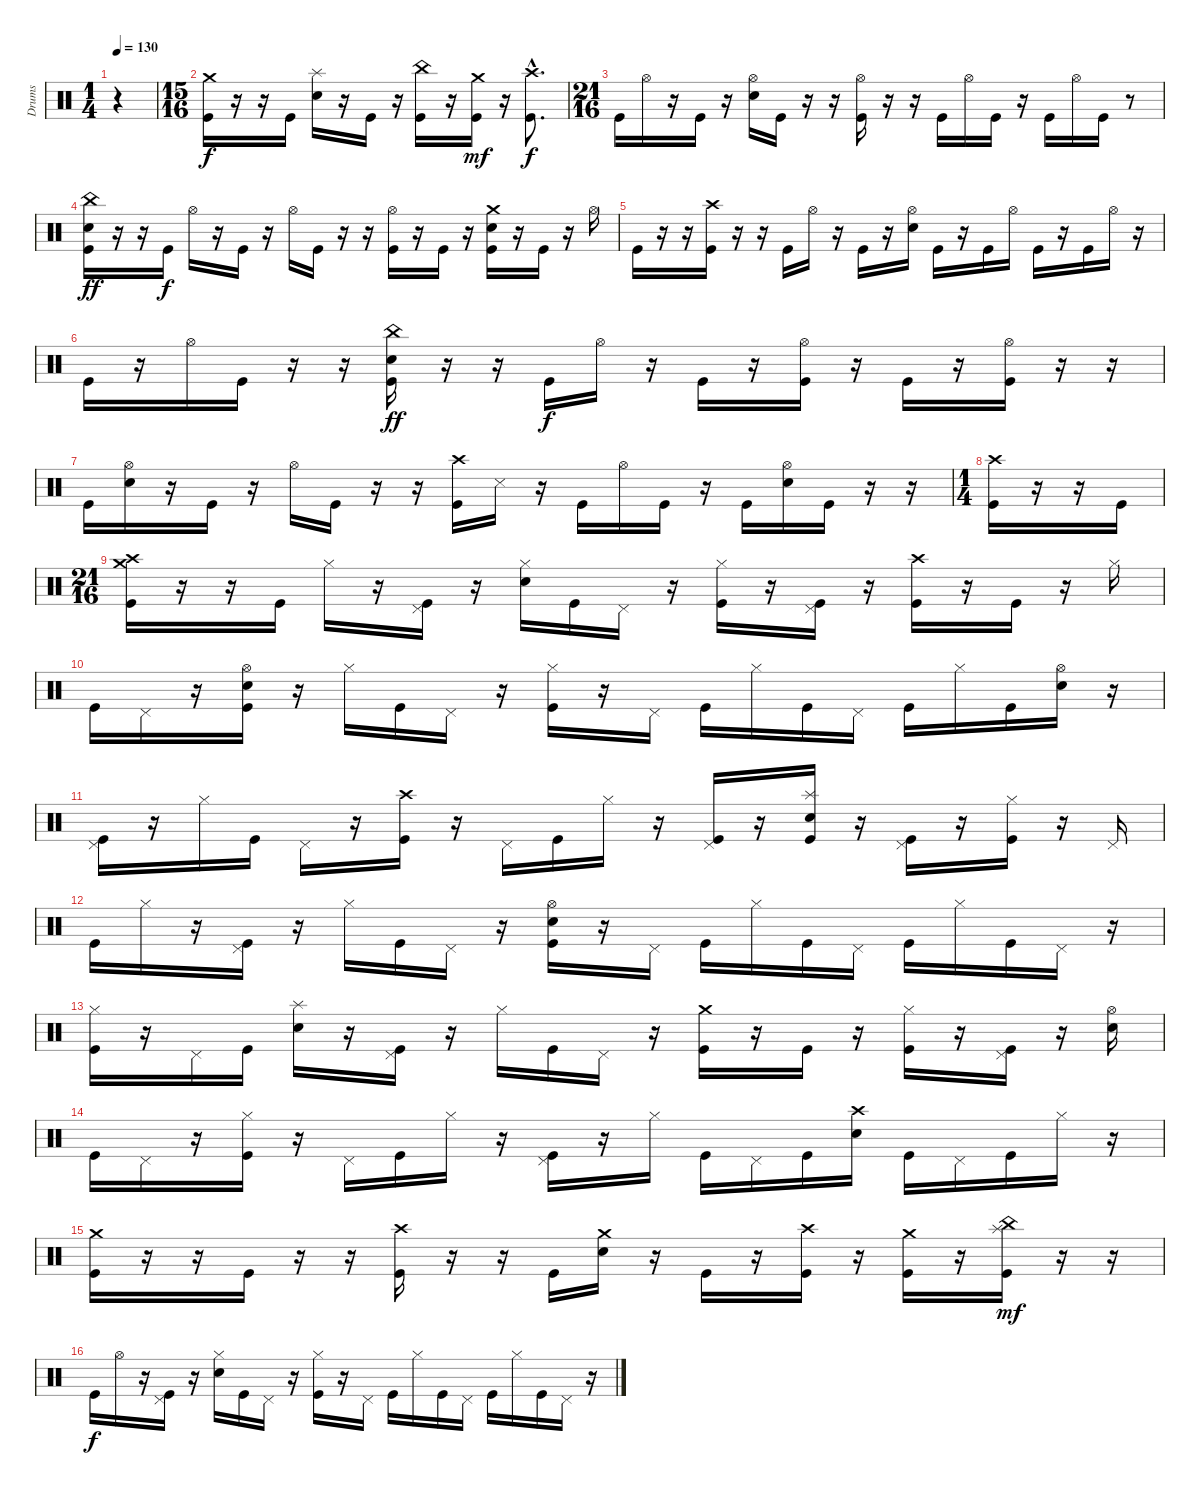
\track ("Drums" "Drums") {instrument percussion}
\staff {score}
\articulation defaults
\ts (1 4)
\tempo 130
\clef neutral
\ks c
r.4{dy mf} |
\ts (15 16)
("Crash medium (hit)" "Kick (hit)").16{dy f} r.16 r.16 "Kick (hit)".16 ("Splash (hit)" "Electric Snare (hit)").16 r.16 "Kick (hit)".16 r.16 ("China (hit)" "Kick (hit)").16 r.16 ("Crash medium (hit)" "Kick (hit)").16{dy mf} r.16 ("Crash high (hit)"{hac} "Kick (hit)"{hac}).8{d dy f} |
\ts (21 16)
"Kick (hit)".16 "Hi-Hat (open)".16 r.16 "Kick (hit)".16 r.16 ("Hi-Hat (open)" "Electric Snare (hit)").16 "Kick (hit)".16 r.16 r.16 ("Hi-Hat (open)" "Kick (hit)").16 r.16 r.16 "Kick (hit)".16 "Hi-Hat (open)".16 "Kick (hit)".16 r.16 "Kick (hit)".16 "Hi-Hat (open)".16 "Kick (hit)".16 r.8 |
("China (hit)" "Electric Snare (hit)" "Kick (hit)").16{dy ff} r.16 r.16 "Kick (hit)".16{dy f} "Hi-Hat (open)".16 r.16 "Kick (hit)".16 r.16 "Hi-Hat (open)".16 "Kick (hit)".16 r.16 r.16 ("Hi-Hat (open)" "Kick (hit)").16 r.16 "Kick (hit)".16 r.16 ("Crash medium (hit)" "Electric Snare (hit)" "Kick (hit)").16 r.16 "Kick (hit)".16 r.16 "Hi-Hat (open)".16 |
"Kick (hit)".16 r.16 r.16 ("Crash high (hit)" "Kick (hit)").16 r.16 r.16 "Kick (hit)".16 "Hi-Hat (open)".16 r.16 "Kick (hit)".16 r.16 ("Hi-Hat (open)" "Electric Snare (hit)").16 "Kick (hit)".16 r.16 "Kick (hit)".16 "Hi-Hat (open)".16 "Kick (hit)".16 r.16 "Kick (hit)".16 "Hi-Hat (open)".16 r.16 |
"Kick (hit)".16 r.16 "Hi-Hat (open)".16 "Kick (hit)".16 r.16 r.16 ("China (hit)" "Electric Snare (hit)" "Kick (hit)").16{dy ff} r.16 r.16 "Kick (hit)".16{dy f} "Hi-Hat (open)".16 r.16 "Kick (hit)".16 r.16 ("Hi-Hat (open)" "Kick (hit)").16 r.16 "Kick (hit)".16 r.16 ("Hi-Hat (open)" "Kick (hit)").16 r.16 r.16 |
"Kick (hit)".16 ("Hi-Hat (open)" "Electric Snare (hit)").16 r.16 "Kick (hit)".16 r.16 "Hi-Hat (open)".16 "Kick (hit)".16 r.16 r.16 ("Crash high (hit)" "Kick (hit)").16 "Metronome (hit)".16 r.16 "Kick (hit)".16 "Hi-Hat (open)".16 "Kick (hit)".16 r.16 "Kick (hit)".16 ("Hi-Hat (open)" "Electric Snare (hit)").16 "Kick (hit)".16 r.16 r.16 |
\ts (1 4)
("Crash high (hit)" "Kick (hit)").16 r.16 r.16 "Kick (hit)".16 |
\ts (21 16)
("Crash medium (hit)" "Crash high (hit)" "Kick (hit)").16 r.16 r.16 "Kick (hit)".16 "Hi-Hat (closed)".16 r.16 ("Pedal Hi-Hat (hit)" "Kick (hit)").16 r.16 ("Hi-Hat (closed)" "Electric Snare (hit)").16 "Kick (hit)".16 "Pedal Hi-Hat (hit)".16 r.16 ("Hi-Hat (closed)" "Kick (hit)").16 r.16 ("Pedal Hi-Hat (hit)" "Kick (hit)").16 r.16 ("Crash high (hit)" "Kick (hit)").16 r.16 "Kick (hit)".16 r.16 "Hi-Hat (closed)".16 |
"Kick (hit)".16 "Pedal Hi-Hat (hit)".16 r.16 ("Hi-Hat (open)" "Electric Snare (hit)" "Kick (hit)").16 r.16 "Hi-Hat (closed)".16 "Kick (hit)".16 "Pedal Hi-Hat (hit)".16 r.16 ("Hi-Hat (closed)" "Kick (hit)").16 r.16 "Pedal Hi-Hat (hit)".16 "Kick (hit)".16 "Hi-Hat (closed)".16 "Kick (hit)".16 "Pedal Hi-Hat (hit)".16 "Kick (hit)".16 "Hi-Hat (closed)".16 "Kick (hit)".16 ("Hi-Hat (open)" "Electric Snare (hit)").16 r.16 |
("Pedal Hi-Hat (hit)" "Kick (hit)").16 r.16 "Hi-Hat (closed)".16 "Kick (hit)".16 "Pedal Hi-Hat (hit)".16 r.16 ("Crash high (hit)" "Kick (hit)").16 r.16 "Pedal Hi-Hat (hit)".16 "Kick (hit)".16 "Hi-Hat (closed)".16 r.16 ("Pedal Hi-Hat (hit)" "Kick (hit)").16 r.16 ("Splash (hit)" "Electric Snare (hit)" "Kick (hit)").16 r.16 ("Pedal Hi-Hat (hit)" "Kick (hit)").16 r.16 ("Hi-Hat (closed)" "Kick (hit)").16 r.16 "Pedal Hi-Hat (hit)".16 |
"Kick (hit)".16 "Hi-Hat (closed)".16 r.16 ("Pedal Hi-Hat (hit)" "Kick (hit)").16 r.16 "Hi-Hat (closed)".16 "Kick (hit)".16 "Pedal Hi-Hat (hit)".16 r.16 ("Hi-Hat (open)" "Electric Snare (hit)" "Kick (hit)").16 r.16 "Pedal Hi-Hat (hit)".16 "Kick (hit)".16 "Hi-Hat (closed)".16 "Kick (hit)".16 "Pedal Hi-Hat (hit)".16 "Kick (hit)".16 "Hi-Hat (closed)".16 "Kick (hit)".16 "Pedal Hi-Hat (hit)".16 r.16 |
("Hi-Hat (closed)" "Kick (hit)").16 r.16 "Pedal Hi-Hat (hit)".16 "Kick (hit)".16 ("Splash (hit)" "Electric Snare (hit)").16 r.16 ("Pedal Hi-Hat (hit)" "Kick (hit)").16 r.16 "Hi-Hat (closed)".16 "Kick (hit)".16 "Pedal Hi-Hat (hit)".16 r.16 ("Crash medium (hit)" "Kick (hit)").16 r.16 "Kick (hit)".16 r.16 ("Hi-Hat (closed)" "Kick (hit)").16 r.16 ("Pedal Hi-Hat (hit)" "Kick (hit)").16 r.16 ("Hi-Hat (open)" "Electric Snare (hit)").16 |
"Kick (hit)".16 "Pedal Hi-Hat (hit)".16 r.16 ("Hi-Hat (closed)" "Kick (hit)").16 r.16 "Pedal Hi-Hat (hit)".16 "Kick (hit)".16 "Hi-Hat (closed)".16 r.16 ("Pedal Hi-Hat (hit)" "Kick (hit)").16 r.16 "Hi-Hat (closed)".16 "Kick (hit)".16 "Pedal Hi-Hat (hit)".16 "Kick (hit)".16 ("Crash high (hit)" "Electric Snare (hit)").16 "Kick (hit)".16 "Pedal Hi-Hat (hit)".16 "Kick (hit)".16 "Hi-Hat (closed)".16 r.16 |
("Crash medium (hit)" "Kick (hit)").16 r.16 r.16 "Kick (hit)".16 r.16 r.16 ("Crash high (hit)" "Kick (hit)").16 r.16 r.16 "Kick (hit)".16 ("Crash medium (hit)" "Electric Snare (hit)").16 r.16 "Kick (hit)".16 r.16 ("Crash high (hit)" "Kick (hit)").16 r.16 ("Crash medium (hit)" "Kick (hit)").16 r.16 ("Splash (hit)" "China (hit)" "Kick (hit)").16{dy mf} r.16 r.16 |
"Kick (hit)".16{dy f} "Hi-Hat (open)".16 r.16 ("Pedal Hi-Hat (hit)" "Kick (hit)").16 r.16 ("Hi-Hat (closed)" "Electric Snare (hit)").16 "Kick (hit)".16 "Pedal Hi-Hat (hit)".16 r.16 ("Hi-Hat (closed)" "Kick (hit)").16 r.16 "Pedal Hi-Hat (hit)".16 "Kick (hit)".16 "Hi-Hat (closed)".16 "Kick (hit)".16 "Pedal Hi-Hat (hit)".16 "Kick (hit)".16 "Hi-Hat (closed)".16 "Kick (hit)".16 "Pedal Hi-Hat (hit)".16 r.16
